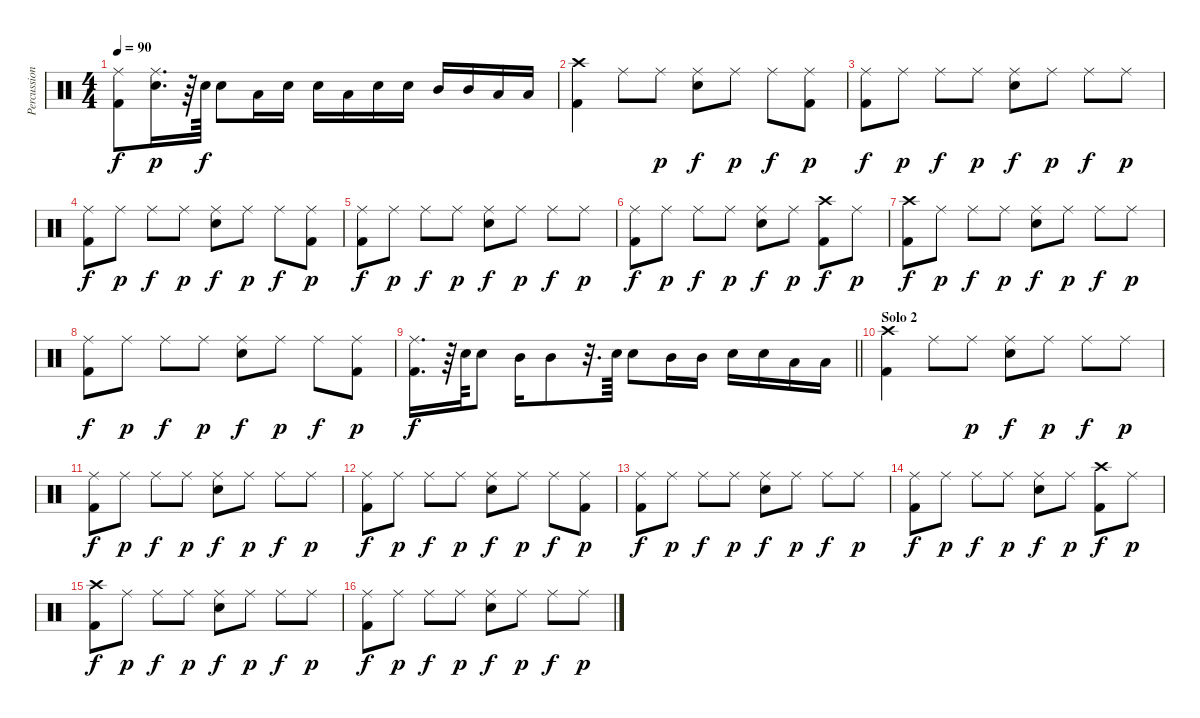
\track ("Percussion" "Percussion") {instrument percussion}
\staff {score}
\articulation defaults
\ts (4 4)
\tempo 90
\clef neutral
\ks c
("Ride (middle)" "Kick (hit) 2").8{dy f} ("Ride (middle)" "Electric Snare (hit)").16{d dy p} r.64 "Electric Snare (hit)".64{dy f} "Electric Snare (hit)".8 "Low Tom (hit)".16 "Electric Snare (hit)".16 "Electric Snare (hit)".16 "Low Tom (hit)".16 "Electric Snare (hit)".16 "Electric Snare (hit)".16 "Mid Tom (hit)".16 "Mid Tom (hit)".16 "Low Tom (hit)".16 "Low Tom (hit)".16 |
("Crash high (hit)" "Kick (hit) 2").4 "Ride (middle)".8 "Ride (middle)".8{dy p} ("Ride (middle)" "Electric Snare (hit)").8{dy f} "Ride (middle)".8{dy p} "Ride (middle)".8{dy f} ("Ride (middle)" "Kick (hit) 2").8{dy p} |
("Ride (middle)" "Kick (hit) 2").8{dy f} "Ride (middle)".8{dy p} "Ride (middle)".8{dy f} "Ride (middle)".8{dy p} ("Ride (middle)" "Electric Snare (hit)").8{dy f} "Ride (middle)".8{dy p} "Ride (middle)".8{dy f} "Ride (middle)".8{dy p} |
("Ride (middle)" "Kick (hit) 2").8{dy f} "Ride (middle)".8{dy p} "Ride (middle)".8{dy f} "Ride (middle)".8{dy p} ("Ride (middle)" "Electric Snare (hit)").8{dy f} "Ride (middle)".8{dy p} "Ride (middle)".8{dy f} ("Ride (middle)" "Kick (hit) 2").8{dy p} |
("Ride (middle)" "Kick (hit) 2").8{dy f} "Ride (middle)".8{dy p} "Ride (middle)".8{dy f} "Ride (middle)".8{dy p} ("Ride (middle)" "Electric Snare (hit)").8{dy f} "Ride (middle)".8{dy p} "Ride (middle)".8{dy f} "Ride (middle)".8{dy p} |
("Ride (middle)" "Kick (hit) 2").8{dy f} "Ride (middle)".8{dy p} "Ride (middle)".8{dy f} "Ride (middle)".8{dy p} ("Ride (middle)" "Electric Snare (hit)").8{dy f} "Ride (middle)".8{dy p} ("Crash high (hit)" "Kick (hit) 2").8{dy f} "Ride (middle)".8{dy p} |
("Crash high (hit)" "Kick (hit) 2").8{dy f} "Ride (middle)".8{dy p} "Ride (middle)".8{dy f} "Ride (middle)".8{dy p} ("Ride (middle)" "Electric Snare (hit)").8{dy f} "Ride (middle)".8{dy p} "Ride (middle)".8{dy f} "Ride (middle)".8{dy p} |
("Ride (middle)" "Kick (hit) 2").8{dy f} "Ride (middle)".8{dy p} "Ride (middle)".8{dy f} "Ride (middle)".8{dy p} ("Ride (middle)" "Electric Snare (hit)").8{dy f} "Ride (middle)".8{dy p} "Ride (middle)".8{dy f} ("Ride (middle)" "Kick (hit) 2").8{dy p} |
\barLineRight lightlight
("Ride (middle)" "Kick (hit) 2").16{d dy f} r.64 "Electric Snare (hit)".64 "Electric Snare (hit)".8 "Mid Tom (hit)".16 "Mid Tom (hit)".8 r.32{d} "Electric Snare (hit)".64 "Electric Snare (hit)".8 "Mid Tom (hit)".16 "Mid Tom (hit)".16 "Electric Snare (hit)".16 "Electric Snare (hit)".16 "Low Tom (hit)".16 "Low Tom (hit)".16 |
\section ("" "Solo 2")
("Crash high (hit)" "Kick (hit) 2").4 "Ride (middle)".8 "Ride (middle)".8{dy p} ("Ride (middle)" "Electric Snare (hit)").8{dy f} "Ride (middle)".8{dy p} "Ride (middle)".8{dy f} "Ride (middle)".8{dy p} |
("Ride (middle)" "Kick (hit) 2").8{dy f} "Ride (middle)".8{dy p} "Ride (middle)".8{dy f} "Ride (middle)".8{dy p} ("Ride (middle)" "Electric Snare (hit)").8{dy f} "Ride (middle)".8{dy p} "Ride (middle)".8{dy f} "Ride (middle)".8{dy p} |
("Ride (middle)" "Kick (hit) 2").8{dy f} "Ride (middle)".8{dy p} "Ride (middle)".8{dy f} "Ride (middle)".8{dy p} ("Ride (middle)" "Electric Snare (hit)").8{dy f} "Ride (middle)".8{dy p} "Ride (middle)".8{dy f} ("Ride (middle)" "Kick (hit) 2").8{dy p} |
("Ride (middle)" "Kick (hit) 2").8{dy f} "Ride (middle)".8{dy p} "Ride (middle)".8{dy f} "Ride (middle)".8{dy p} ("Ride (middle)" "Electric Snare (hit)").8{dy f} "Ride (middle)".8{dy p} "Ride (middle)".8{dy f} "Ride (middle)".8{dy p} |
("Ride (middle)" "Kick (hit) 2").8{dy f} "Ride (middle)".8{dy p} "Ride (middle)".8{dy f} "Ride (middle)".8{dy p} ("Ride (middle)" "Electric Snare (hit)").8{dy f} "Ride (middle)".8{dy p} ("Crash high (hit)" "Kick (hit) 2").8{dy f} "Ride (middle)".8{dy p} |
("Crash high (hit)" "Kick (hit) 2").8{dy f} "Ride (middle)".8{dy p} "Ride (middle)".8{dy f} "Ride (middle)".8{dy p} ("Ride (middle)" "Electric Snare (hit)").8{dy f} "Ride (middle)".8{dy p} "Ride (middle)".8{dy f} "Ride (middle)".8{dy p} |
("Ride (middle)" "Kick (hit) 2").8{dy f} "Ride (middle)".8{dy p} "Ride (middle)".8{dy f} "Ride (middle)".8{dy p} ("Ride (middle)" "Electric Snare (hit)").8{dy f} "Ride (middle)".8{dy p} "Ride (middle)".8{dy f} "Ride (middle)".8{dy p}
